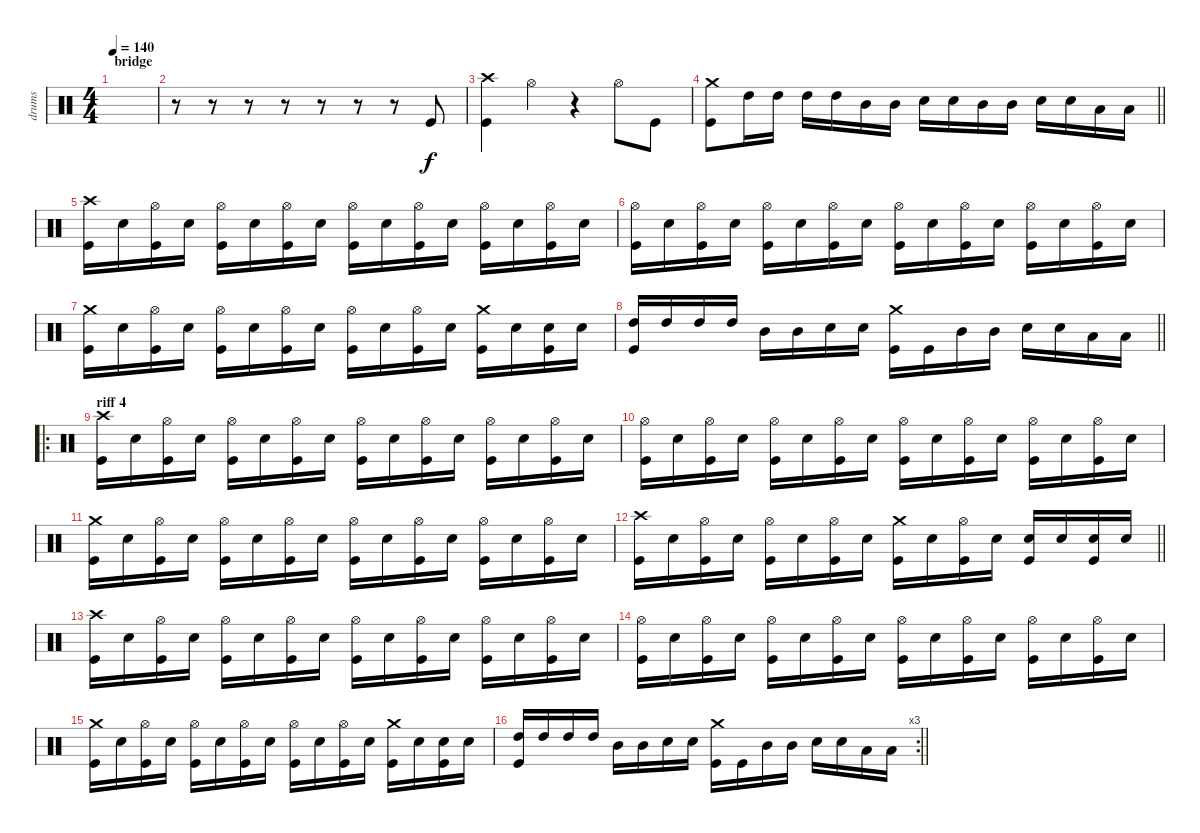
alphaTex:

\track ("drums" "drums") {instrument percussion}
\staff {score}
\articulation defaults
\ts (4 4)
\section ("" "bridge")
\tempo 140
\clef neutral
\ks c
|
r.8 r.8 r.8 r.8 r.8 r.8 r.8 "Kick (hit)".8 |
("Crash high (hit)" "Kick (hit)").4 "Hi-Hat (open)".4 r.4 "Hi-Hat (open)".8 "Kick (hit)".8 |
\barLineRight lightlight
("Crash medium (hit)" "Kick (hit)").8 "High Tom (hit)".16 "High Tom (hit)".16 "High Tom (hit)".16 "High Tom (hit)".16 "Mid Tom (hit)".16 "Mid Tom (hit)".16 "Snare (hit) 2".16 "Snare (hit) 2".16 "Mid Tom (hit)".16 "Mid Tom (hit)".16 "Snare (hit) 2".16 "Snare (hit) 2".16 "Low Tom (hit)".16 "Low Tom (hit)".16 |
("Crash high (hit)" "Kick (hit)").16 "Snare (hit) 2".16 ("Hi-Hat (open)" "Kick (hit)").16 "Snare (hit) 2".16 ("Hi-Hat (open)" "Kick (hit)").16 "Snare (hit) 2".16 ("Hi-Hat (open)" "Kick (hit)").16 "Snare (hit) 2".16 ("Hi-Hat (open)" "Kick (hit)").16 "Snare (hit) 2".16 ("Hi-Hat (open)" "Kick (hit)").16 "Snare (hit) 2".16 ("Hi-Hat (open)" "Kick (hit)").16 "Snare (hit) 2".16 ("Hi-Hat (open)" "Kick (hit)").16 "Snare (hit) 2".16 |
("Hi-Hat (open)" "Kick (hit)").16 "Snare (hit) 2".16 ("Hi-Hat (open)" "Kick (hit)").16 "Snare (hit) 2".16 ("Hi-Hat (open)" "Kick (hit)").16 "Snare (hit) 2".16 ("Hi-Hat (open)" "Kick (hit)").16 "Snare (hit) 2".16 ("Hi-Hat (open)" "Kick (hit)").16 "Snare (hit) 2".16 ("Hi-Hat (open)" "Kick (hit)").16 "Snare (hit) 2".16 ("Hi-Hat (open)" "Kick (hit)").16 "Snare (hit) 2".16 ("Hi-Hat (open)" "Kick (hit)").16 "Snare (hit) 2".16 |
("Crash medium (hit)" "Kick (hit)").16 "Snare (hit) 2".16 ("Hi-Hat (open)" "Kick (hit)").16 "Snare (hit) 2".16 ("Hi-Hat (open)" "Kick (hit)").16 "Snare (hit) 2".16 ("Hi-Hat (open)" "Kick (hit)").16 "Snare (hit) 2".16 ("Hi-Hat (open)" "Kick (hit)").16 "Snare (hit) 2".16 ("Hi-Hat (open)" "Kick (hit)").16 "Snare (hit) 2".16 ("Crash medium (hit)" "Kick (hit)").16 "Snare (hit) 2".16 ("Snare (hit) 2" "Kick (hit)").16 "Snare (hit) 2".16 |
\barLineRight lightlight
("High Tom (hit)" "Kick (hit)").16 "High Tom (hit)".16 "High Tom (hit)".16 "High Tom (hit)".16 "Mid Tom (hit)".16 "Mid Tom (hit)".16 "Snare (hit) 2".16 "Snare (hit) 2".16 ("Crash medium (hit)" "Kick (hit)").16 "Kick (hit)".16 "Mid Tom (hit)".16 "Mid Tom (hit)".16 "Snare (hit) 2".16 "Snare (hit) 2".16 "Low Tom (hit)".16 "Low Tom (hit)".16 |
\ro
\section ("" "riff 4")
("Crash high (hit)" "Kick (hit)").16 "Snare (hit) 2".16 ("Hi-Hat (open)" "Kick (hit)").16 "Snare (hit) 2".16 ("Hi-Hat (open)" "Kick (hit)").16 "Snare (hit) 2".16 ("Hi-Hat (open)" "Kick (hit)").16 "Snare (hit) 2".16 ("Hi-Hat (open)" "Kick (hit)").16 "Snare (hit) 2".16 ("Hi-Hat (open)" "Kick (hit)").16 "Snare (hit) 2".16 ("Hi-Hat (open)" "Kick (hit)").16 "Snare (hit) 2".16 ("Hi-Hat (open)" "Kick (hit)").16 "Snare (hit) 2".16 |
("Hi-Hat (open)" "Kick (hit)").16 "Snare (hit) 2".16 ("Hi-Hat (open)" "Kick (hit)").16 "Snare (hit) 2".16 ("Hi-Hat (open)" "Kick (hit)").16 "Snare (hit) 2".16 ("Hi-Hat (open)" "Kick (hit)").16 "Snare (hit) 2".16 ("Hi-Hat (open)" "Kick (hit)").16 "Snare (hit) 2".16 ("Hi-Hat (open)" "Kick (hit)").16 "Snare (hit) 2".16 ("Hi-Hat (open)" "Kick (hit)").16 "Snare (hit) 2".16 ("Hi-Hat (open)" "Kick (hit)").16 "Snare (hit) 2".16 |
("Crash medium (hit)" "Kick (hit)").16 "Snare (hit) 2".16 ("Hi-Hat (open)" "Kick (hit)").16 "Snare (hit) 2".16 ("Hi-Hat (open)" "Kick (hit)").16 "Snare (hit) 2".16 ("Hi-Hat (open)" "Kick (hit)").16 "Snare (hit) 2".16 ("Hi-Hat (open)" "Kick (hit)").16 "Snare (hit) 2".16 ("Hi-Hat (open)" "Kick (hit)").16 "Snare (hit) 2".16 ("Hi-Hat (open)" "Kick (hit)").16 "Snare (hit) 2".16 ("Hi-Hat (open)" "Kick (hit)").16 "Snare (hit) 2".16 |
\barLineRight lightlight
("Crash high (hit)" "Kick (hit)").16 "Snare (hit) 2".16 ("Hi-Hat (open)" "Kick (hit)").16 "Snare (hit) 2".16 ("Hi-Hat (open)" "Kick (hit)").16 "Snare (hit) 2".16 ("Hi-Hat (open)" "Kick (hit)").16 "Snare (hit) 2".16 ("Crash medium (hit)" "Kick (hit)").16 "Snare (hit) 2".16 ("Hi-Hat (open)" "Kick (hit)").16 "Snare (hit) 2".16 ("Snare (hit) 2" "Kick (hit)").16 "Snare (hit) 2".16 ("Snare (hit) 2" "Kick (hit)").16 "Snare (hit) 2".16 |
("Crash high (hit)" "Kick (hit)").16 "Snare (hit) 2".16 ("Hi-Hat (open)" "Kick (hit)").16 "Snare (hit) 2".16 ("Hi-Hat (open)" "Kick (hit)").16 "Snare (hit) 2".16 ("Hi-Hat (open)" "Kick (hit)").16 "Snare (hit) 2".16 ("Hi-Hat (open)" "Kick (hit)").16 "Snare (hit) 2".16 ("Hi-Hat (open)" "Kick (hit)").16 "Snare (hit) 2".16 ("Hi-Hat (open)" "Kick (hit)").16 "Snare (hit) 2".16 ("Hi-Hat (open)" "Kick (hit)").16 "Snare (hit) 2".16 |
("Hi-Hat (open)" "Kick (hit)").16 "Snare (hit) 2".16 ("Hi-Hat (open)" "Kick (hit)").16 "Snare (hit) 2".16 ("Hi-Hat (open)" "Kick (hit)").16 "Snare (hit) 2".16 ("Hi-Hat (open)" "Kick (hit)").16 "Snare (hit) 2".16 ("Hi-Hat (open)" "Kick (hit)").16 "Snare (hit) 2".16 ("Hi-Hat (open)" "Kick (hit)").16 "Snare (hit) 2".16 ("Hi-Hat (open)" "Kick (hit)").16 "Snare (hit) 2".16 ("Hi-Hat (open)" "Kick (hit)").16 "Snare (hit) 2".16 |
("Crash medium (hit)" "Kick (hit)").16 "Snare (hit) 2".16 ("Hi-Hat (open)" "Kick (hit)").16 "Snare (hit) 2".16 ("Hi-Hat (open)" "Kick (hit)").16 "Snare (hit) 2".16 ("Hi-Hat (open)" "Kick (hit)").16 "Snare (hit) 2".16 ("Hi-Hat (open)" "Kick (hit)").16 "Snare (hit) 2".16 ("Hi-Hat (open)" "Kick (hit)").16 "Snare (hit) 2".16 ("Crash medium (hit)" "Kick (hit)").16 "Snare (hit) 2".16 ("Snare (hit) 2" "Kick (hit)").16 "Snare (hit) 2".16 |
\rc 3
\barLineRight lightlight
("High Tom (hit)" "Kick (hit)").16 "High Tom (hit)".16 "High Tom (hit)".16 "High Tom (hit)".16 "Mid Tom (hit)".16 "Mid Tom (hit)".16 "Snare (hit) 2".16 "Snare (hit) 2".16 ("Crash medium (hit)" "Kick (hit)").16 "Kick (hit)".16 "Mid Tom (hit)".16 "Mid Tom (hit)".16 "Snare (hit) 2".16 "Snare (hit) 2".16 "Low Tom (hit)".16 "Low Tom (hit)".16
